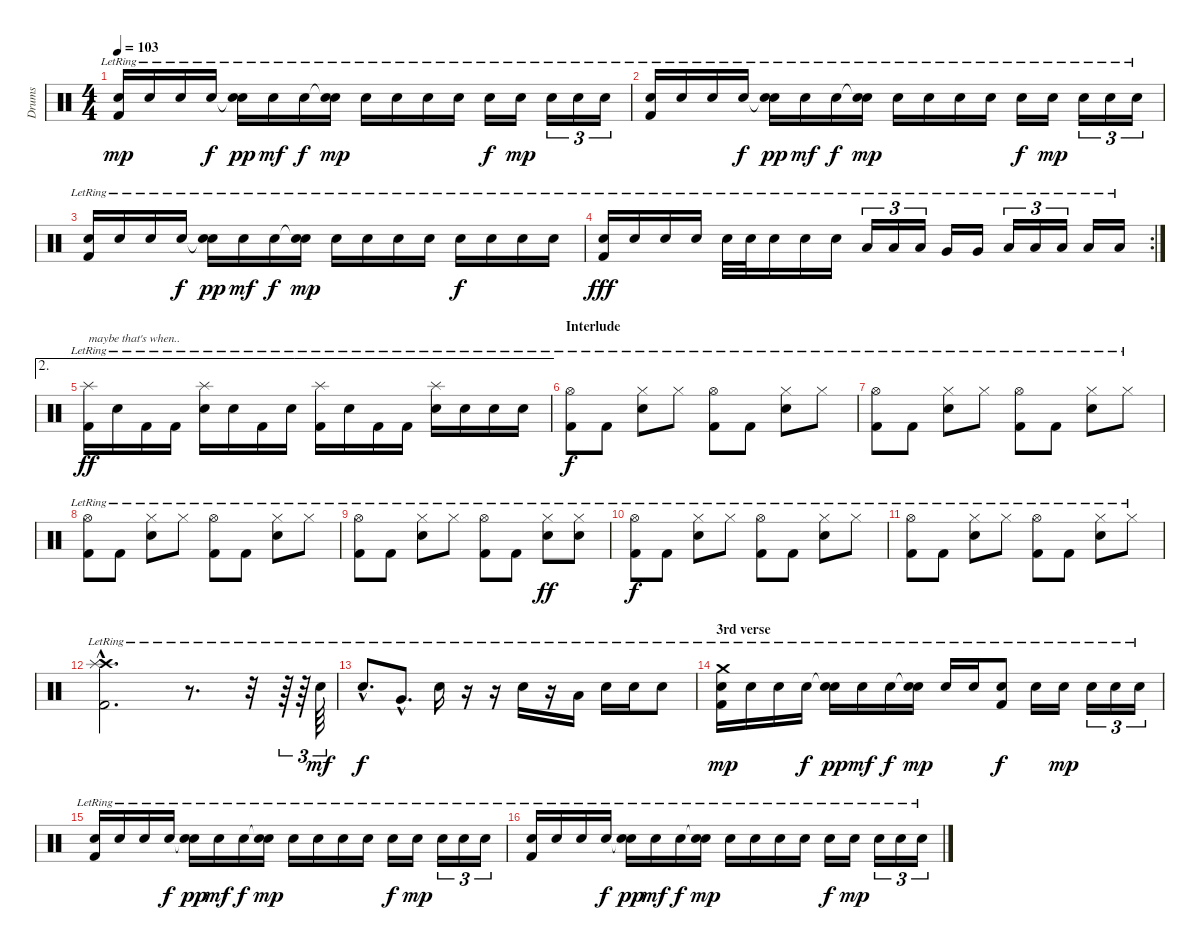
\track ("Drums" "Drums") {instrument percussion}
\staff {score}
\articulation defaults
\ts (4 4)
\tempo 103
\clef neutral
\ks c
("Snare (hit) 2"{lr} "Kick (hit) 2"{lr}).16{dy mp} "Snare (hit) 2"{lr}.16 "Snare (hit) 2"{lr}.16 "Electric Snare (hit)"{lr}.16{dy f} ("Snare (hit)"{t} "Snare (hit) 2"{lr}).16{dy pp} "Snare (hit) 2"{lr}.16{dy mf} "Electric Snare (hit)"{lr}.16{dy f} ("Snare (hit)"{t} "Snare (hit) 2"{lr}).16{dy mp} "Snare (hit) 2"{lr}.16 "Snare (hit) 2"{lr}.16 "Snare (hit) 2"{lr}.16 "Snare (hit) 2"{lr}.16 "Electric Snare (hit)"{lr}.16{dy f} "Snare (hit) 2"{lr}.16{dy mp} "Snare (hit) 2"{lr}.16{tu (3 2)} "Snare (hit) 2"{lr}.16{tu (3 2)} "Snare (hit) 2"{lr}.16{tu (3 2)} |
("Snare (hit) 2"{lr} "Kick (hit) 2"{lr}).16 "Snare (hit) 2"{lr}.16 "Snare (hit) 2"{lr}.16 "Electric Snare (hit)"{lr}.16{dy f} ("Snare (hit)"{t} "Snare (hit) 2"{lr}).16{dy pp} "Snare (hit) 2"{lr}.16{dy mf} "Electric Snare (hit)"{lr}.16{dy f} ("Snare (hit)"{t} "Snare (hit) 2"{lr}).16{dy mp} "Snare (hit) 2"{lr}.16 "Snare (hit) 2"{lr}.16 "Snare (hit) 2"{lr}.16 "Snare (hit) 2"{lr}.16 "Electric Snare (hit)"{lr}.16{dy f} "Snare (hit) 2"{lr}.16{dy mp} "Snare (hit) 2"{lr}.16{tu (3 2)} "Snare (hit) 2"{lr}.16{tu (3 2)} "Snare (hit) 2"{lr}.16{tu (3 2)} |
("Snare (hit) 2"{lr} "Kick (hit) 2"{lr}).16 "Snare (hit) 2"{lr}.16 "Snare (hit) 2"{lr}.16 "Electric Snare (hit)"{lr}.16{dy f} ("Snare (hit)"{t} "Snare (hit) 2"{lr}).16{dy pp} "Snare (hit) 2"{lr}.16{dy mf} "Electric Snare (hit)"{lr}.16{dy f} ("Snare (hit)"{t} "Snare (hit) 2"{lr}).16{dy mp} "Snare (hit) 2"{lr}.16 "Snare (hit) 2"{lr}.16 "Snare (hit) 2"{lr}.16 "Snare (hit) 2"{lr}.16 "Electric Snare (hit)"{lr}.16{dy f} "Electric Snare (hit)"{lr}.16 "Electric Snare (hit)"{lr}.16 "Electric Snare (hit)"{lr}.16{volume 14} |
\rc 2
("Electric Snare (hit)"{lr} "Kick (hit) 2"{lr}).16{dy fff volume 16} "Electric Snare (hit)"{lr}.16 "Electric Snare (hit)"{lr}.16 "Electric Snare (hit)"{lr}.16 "Electric Snare (hit)"{lr}.32 "Electric Snare (hit)"{lr}.32 "Electric Snare (hit)"{lr}.16 "Electric Snare (hit)"{lr}.16 "Electric Snare (hit)"{lr}.16 "Low Tom (hit)"{lr}.16{tu (3 2)} "Low Tom (hit)"{lr}.16{tu (3 2)} "Low Tom (hit)"{lr}.16{tu (3 2)} "Very Low Tom (hit)"{lr}.16 "Very Low Tom (hit)"{lr}.16 "Low Floor Tom (hit)"{lr}.16{tu (3 2)} "Low Floor Tom (hit)"{lr}.16{tu (3 2)} "Low Floor Tom (hit)"{lr}.16{tu (3 2)} "Low Floor Tom (hit)"{lr}.16 "Low Floor Tom (hit)"{lr}.16 |
\ae 2
("Splash (hit)"{lr} "Kick (hit) 2"{lr}).16{txt "maybe that's when.." dy ff} "Electric Snare (hit)"{lr}.16 "Kick (hit) 2"{lr}.16 "Kick (hit) 2"{lr}.16 ("Splash (hit)"{lr} "Electric Snare (hit)"{lr}).16 "Electric Snare (hit)"{lr}.16 "Kick (hit) 2"{lr}.16 "Electric Snare (hit)"{lr}.16 ("Splash (hit)"{lr} "Kick (hit) 2"{lr}).16 "Electric Snare (hit)"{lr}.16 "Kick (hit) 2"{lr}.16 "Kick (hit) 2"{lr}.16 ("Splash (hit)"{lr} "Electric Snare (hit)"{lr}).16 "Electric Snare (hit)"{lr}.16 "Electric Snare (hit)"{lr}.16 "Electric Snare (hit)"{lr}.16 |
\section ("" "Interlude")
("Hi-Hat (open)"{lr} "Kick (hit) 2"{lr}).8{dy f volume 16} "Kick (hit) 2"{lr}.8 ("Hi-Hat (closed)"{lr} "Electric Snare (hit)"{lr}).8 "Hi-Hat (closed)"{lr}.8 ("Hi-Hat (open)"{lr} "Kick (hit) 2"{lr}).8 "Kick (hit) 2"{lr}.8 ("Hi-Hat (closed)"{lr} "Electric Snare (hit)"{lr}).8 "Hi-Hat (closed)"{lr}.8 |
("Hi-Hat (open)"{lr} "Kick (hit) 2"{lr}).8 "Kick (hit) 2"{lr}.8 ("Hi-Hat (closed)"{lr} "Electric Snare (hit)"{lr}).8 "Hi-Hat (closed)"{lr}.8 ("Hi-Hat (open)"{lr} "Kick (hit) 2"{lr}).8 "Kick (hit) 2"{lr}.8 ("Hi-Hat (closed)"{lr} "Electric Snare (hit)"{lr}).8 "Hi-Hat (closed)"{lr}.8 |
("Hi-Hat (open)"{lr} "Kick (hit) 2"{lr}).8 "Kick (hit) 2"{lr}.8 ("Hi-Hat (closed)"{lr} "Electric Snare (hit)"{lr}).8 "Hi-Hat (closed)"{lr}.8 ("Hi-Hat (open)"{lr} "Kick (hit) 2"{lr}).8 "Kick (hit) 2"{lr}.8 ("Hi-Hat (closed)"{lr} "Electric Snare (hit)"{lr}).8 "Hi-Hat (closed)"{lr}.8 |
("Hi-Hat (open)"{lr} "Kick (hit) 2"{lr}).8 "Kick (hit) 2"{lr}.8 ("Hi-Hat (closed)"{lr} "Electric Snare (hit)"{lr}).8 "Hi-Hat (closed)"{lr}.8 ("Hi-Hat (open)"{lr} "Kick (hit) 2"{lr}).8 "Kick (hit) 2"{lr}.8 ("Hi-Hat (closed)"{lr} "Electric Snare (hit)"{lr}).8{dy ff} ("Hi-Hat (closed)"{lr} "Electric Snare (hit)"{lr}).8 |
("Hi-Hat (open)"{lr} "Kick (hit) 2"{lr}).8{dy f volume 16} "Kick (hit) 2"{lr}.8 ("Hi-Hat (closed)"{lr} "Electric Snare (hit)"{lr}).8 "Hi-Hat (closed)"{lr}.8 ("Hi-Hat (open)"{lr} "Kick (hit) 2"{lr}).8 "Kick (hit) 2"{lr}.8 ("Hi-Hat (closed)"{lr} "Electric Snare (hit)"{lr}).8 "Hi-Hat (closed)"{lr}.8 |
("Hi-Hat (open)"{lr} "Kick (hit) 2"{lr}).8 "Kick (hit) 2"{lr}.8 ("Hi-Hat (closed)"{lr} "Electric Snare (hit)"{lr}).8 "Hi-Hat (closed)"{lr}.8 ("Hi-Hat (open)"{lr} "Kick (hit) 2"{lr}).8 "Kick (hit) 2"{lr}.8 ("Hi-Hat (closed)"{lr} "Electric Snare (hit)"{lr}).8 "Hi-Hat (closed)"{lr}.8 |
("Crash high (hit)"{hac lr} "Splash (hit)"{hac lr} "Kick (hit) 2"{hac lr}).2{d} r.8{d} r.32 r.64{tu (3 2)} r.64{tu (3 2)} "Electric Snare (hit)"{lr}.64{tu (3 2) dy mf} |
"Electric Snare (hit)"{hac lr}.8{d dy f volume 16 balance 3} "Very Low Tom (hit)"{hac lr}.8{d balance 13} "Electric Snare (hit)"{lr}.16{balance 3} r.16 r.16 "Electric Snare (hit)"{lr}.16 r.16 "Low Tom (hit)"{lr}.16{balance 13} "Electric Snare (hit)"{lr}.16{balance 3} "Electric Snare (hit)"{lr}.16 "Electric Snare (hit)"{lr}.8 |
\section ("" "3rd verse")
("Crash medium (hit)"{lr} "Snare (hit) 2"{lr} "Kick (hit) 2"{lr}).16{dy mp balance 8} "Snare (hit) 2"{lr}.16 "Snare (hit) 2"{lr}.16 "Electric Snare (hit)"{lr}.16{dy f} ("Snare (hit)"{t} "Snare (hit) 2"{lr}).16{dy pp} "Snare (hit) 2"{lr}.16{dy mf} "Electric Snare (hit)"{lr}.16{dy f} ("Snare (hit)"{t} "Snare (hit) 2"{lr}).16{dy mp} "Snare (hit) 2"{lr}.16 "Snare (hit) 2"{lr}.16 ("Snare (hit) 2"{lr} "Kick (hit) 2"{lr}).8{dy f} "Electric Snare (hit)"{lr}.16 "Snare (hit) 2"{lr}.16{dy mp} "Snare (hit) 2"{lr}.16{tu (3 2)} "Snare (hit) 2"{lr}.16{tu (3 2)} "Snare (hit) 2"{lr}.16{tu (3 2)} |
("Snare (hit) 2"{lr} "Kick (hit) 2"{lr}).16 "Snare (hit) 2"{lr}.16 "Snare (hit) 2"{lr}.16 "Electric Snare (hit)"{lr}.16{dy f} ("Snare (hit)"{t} "Snare (hit) 2"{lr}).16{dy pp} "Snare (hit) 2"{lr}.16{dy mf} "Electric Snare (hit)"{lr}.16{dy f} ("Snare (hit)"{t} "Snare (hit) 2"{lr}).16{dy mp} "Snare (hit) 2"{lr}.16 "Snare (hit) 2"{lr}.16 "Snare (hit) 2"{lr}.16 "Snare (hit) 2"{lr}.16 "Electric Snare (hit)"{lr}.16{dy f} "Snare (hit) 2"{lr}.16{dy mp} "Snare (hit) 2"{lr}.16{tu (3 2)} "Snare (hit) 2"{lr}.16{tu (3 2)} "Snare (hit) 2"{lr}.16{tu (3 2)} |
("Snare (hit) 2"{lr} "Kick (hit) 2"{lr}).16 "Snare (hit) 2"{lr}.16 "Snare (hit) 2"{lr}.16 "Electric Snare (hit)"{lr}.16{dy f} ("Snare (hit)"{t} "Snare (hit) 2"{lr}).16{dy pp} "Snare (hit) 2"{lr}.16{dy mf} "Electric Snare (hit)"{lr}.16{dy f} ("Snare (hit)"{t} "Snare (hit) 2"{lr}).16{dy mp} "Snare (hit) 2"{lr}.16 "Snare (hit) 2"{lr}.16 "Snare (hit) 2"{lr}.16 "Snare (hit) 2"{lr}.16 "Electric Snare (hit)"{lr}.16{dy f} "Snare (hit) 2"{lr}.16{dy mp} "Snare (hit) 2"{lr}.16{tu (3 2)} "Snare (hit) 2"{lr}.16{tu (3 2)} "Snare (hit) 2"{lr}.16{tu (3 2)}
